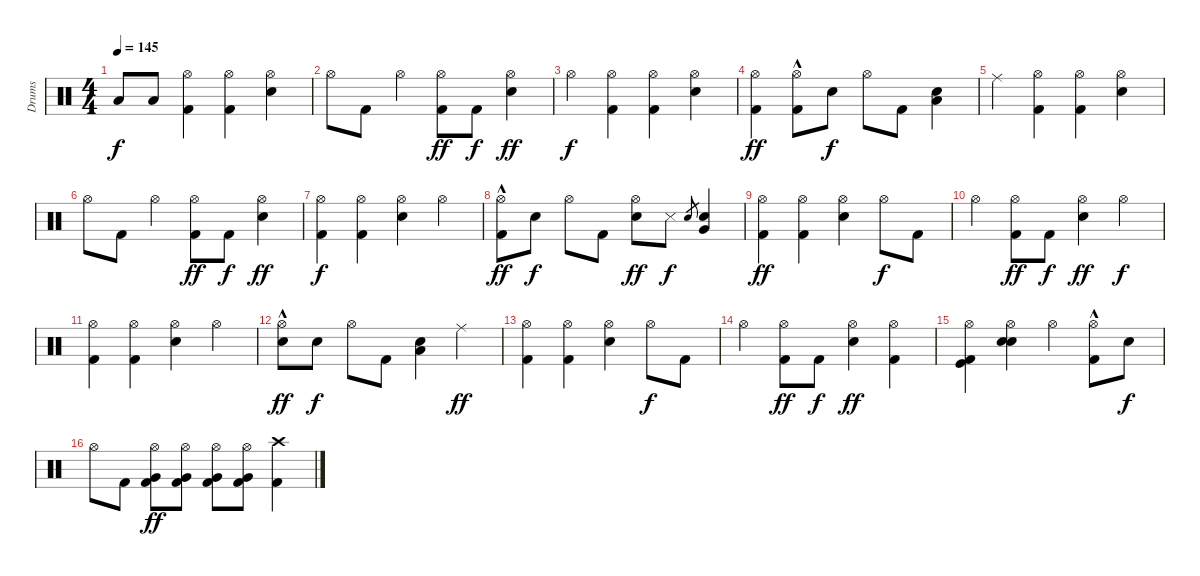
\track ("Drums" "Drums") {instrument percussion}
\staff {score}
\articulation defaults
\ts (4 4)
\tempo 145
\clef neutral
\ks c "Low Tom (hit)".8{dy f} "Low Tom (hit)".8
("Hi-Hat (open)" "Kick (hit) 2").4 ("Hi-Hat (open)" "Kick (hit) 2").4 ("Hi-Hat (open)" "Electric Snare (hit)").4 |
"Hi-Hat (open)".8 "Kick (hit) 2".8 "Hi-Hat (open)".4 ("Hi-Hat (open)" "Kick (hit) 2").8{dy ff} "Kick (hit) 2".8{dy f} ("Hi-Hat (open)" "Electric Snare (hit)").4{dy ff} |
"Hi-Hat (open)".4{dy f} ("Hi-Hat (open)" "Kick (hit) 2").4 ("Hi-Hat (open)" "Kick (hit) 2").4 ("Hi-Hat (open)" "Electric Snare (hit)").4 |
("Hi-Hat (open)" "Kick (hit) 2").4{dy ff} ("Hi-Hat (open)"{hac} "Kick (hit) 2").8 "Electric Snare (hit)".8{dy f} "Hi-Hat (open)".8 "Kick (hit) 2".8 ("Low Tom (hit)" "Electric Snare (hit)").4 |
"Ride (middle)".4 ("Hi-Hat (open)" "Kick (hit) 2").4 ("Hi-Hat (open)" "Kick (hit) 2").4 ("Hi-Hat (open)" "Electric Snare (hit)").4 |
"Hi-Hat (open)".8 "Kick (hit) 2".8 "Hi-Hat (open)".4 ("Hi-Hat (open)" "Kick (hit) 2").8{dy ff} "Kick (hit) 2".8{dy f} ("Hi-Hat (open)" "Electric Snare (hit)").4{dy ff} |
("Hi-Hat (open)" "Kick (hit) 2").4{dy f} ("Hi-Hat (open)" "Kick (hit) 2").4 ("Hi-Hat (open)" "Electric Snare (hit)").4 "Hi-Hat (open)".4 |
("Hi-Hat (open)"{hac} "Kick (hit) 2").8{dy ff} "Electric Snare (hit)".8{dy f} "Hi-Hat (open)".8 "Kick (hit) 2".8 ("Hi-Hat (open)" "Electric Snare (hit)").8{dy ff} "Snare (side stick) 3".8{dy f} "Electric Snare (hit)".8{gr} ("Very Low Tom (hit)" "Electric Snare (hit)").4 |
("Hi-Hat (open)" "Kick (hit) 2").4{dy ff} ("Hi-Hat (open)" "Kick (hit) 2").4 ("Hi-Hat (open)" "Electric Snare (hit)").4 "Hi-Hat (open)".8{dy f} "Kick (hit) 2".8 |
"Hi-Hat (open)".4 ("Hi-Hat (open)" "Kick (hit) 2").8{dy ff} "Kick (hit) 2".8{dy f} ("Hi-Hat (open)" "Electric Snare (hit)").4{dy ff} "Hi-Hat (open)".4{dy f} |
("Hi-Hat (open)" "Kick (hit) 2").4 ("Hi-Hat (open)" "Kick (hit) 2").4 ("Hi-Hat (open)" "Electric Snare (hit)").4 "Hi-Hat (open)".4 |
("Hi-Hat (open)"{hac} "Snare (hit)").8{dy ff} "Electric Snare (hit)".8{dy f} "Hi-Hat (open)".8 "Kick (hit) 2".8 ("Low Tom (hit)" "Electric Snare (hit)").4 "Ride (middle)".4{dy ff} |
("Hi-Hat (open)" "Kick (hit) 2").4 ("Hi-Hat (open)" "Kick (hit) 2").4 ("Hi-Hat (open)" "Electric Snare (hit)").4 "Hi-Hat (open)".8{dy f} "Kick (hit) 2".8 |
"Hi-Hat (open)".4 ("Hi-Hat (open)" "Kick (hit) 2").8{dy ff} "Kick (hit) 2".8{dy f} ("Hi-Hat (open)" "Electric Snare (hit)").4{dy ff} ("Hi-Hat (open)" "Kick (hit) 2").4 |
("Kick (hit)" "Hi-Hat (open)" "Kick (hit) 2").4 ("Electric Snare (hit)" "Hi-Hat (open)" "Electric Snare (hit)").4 "Hi-Hat (open)".4 ("Hi-Hat (open)"{hac} "Kick (hit) 2").8 "Electric Snare (hit)".8{dy f} |
"Hi-Hat (open)".8 "Kick (hit) 2".8 ("Hi-Hat (open)" "Very Low Tom (hit)" "Kick (hit) 2").8{dy ff} ("Hi-Hat (open)" "Very Low Tom (hit)" "Kick (hit) 2").8 ("Hi-Hat (open)" "Very Low Tom (hit)" "Kick (hit) 2").8 ("Hi-Hat (open)" "Very Low Tom (hit)" "Kick (hit) 2").8 ("Crash high (hit)" "Kick (hit) 2").4
